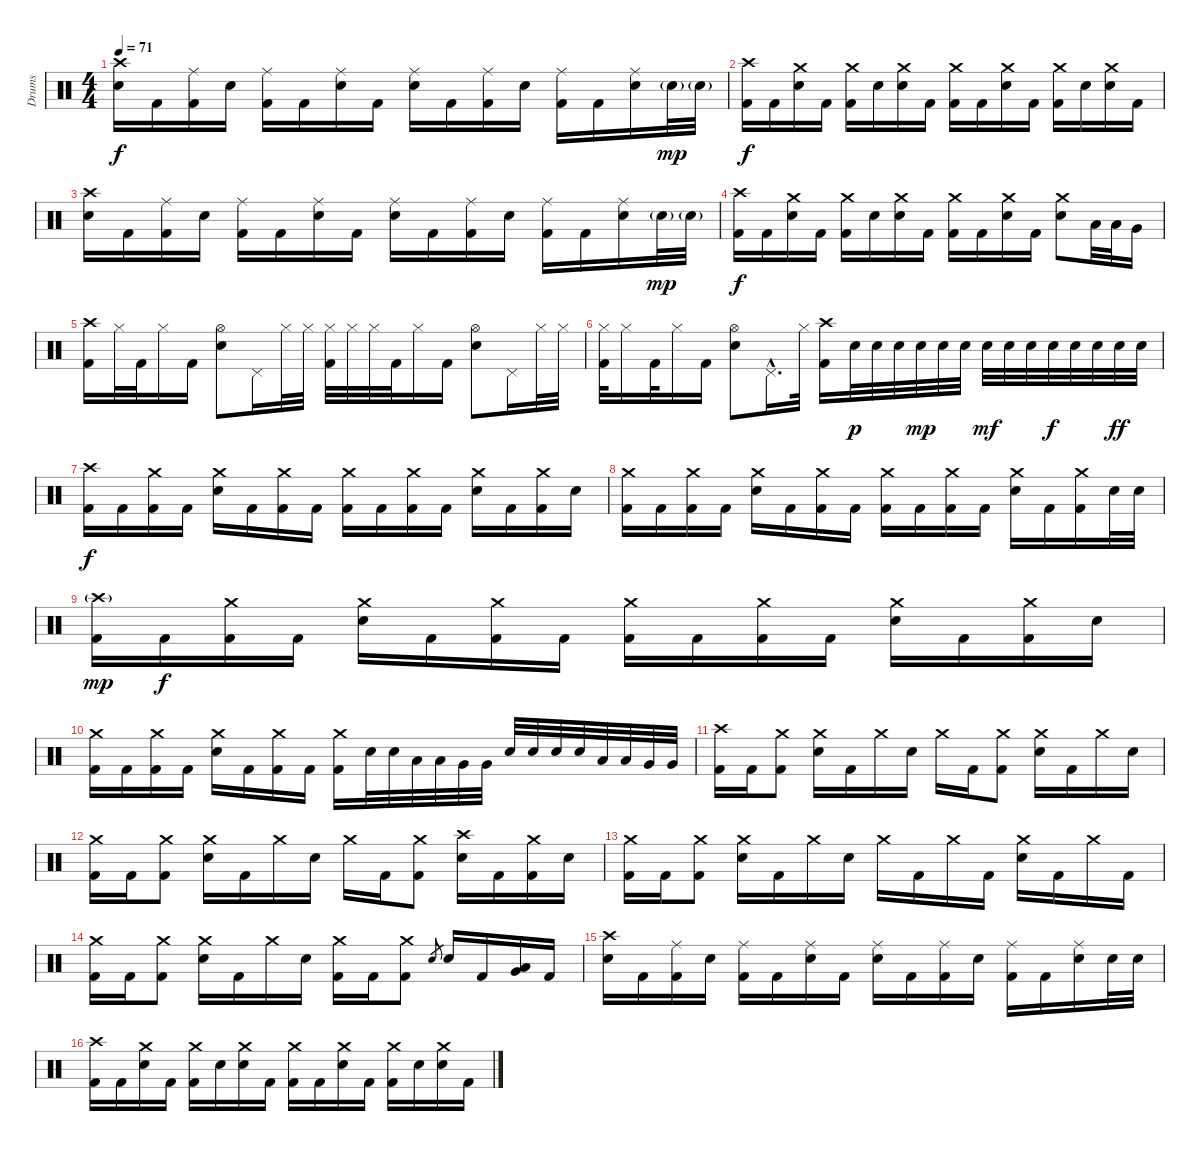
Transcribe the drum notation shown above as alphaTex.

\track ("Drums" "Drums") {instrument percussion}
\staff {score}
\articulation defaults
\ts (4 4)
\tempo 71
\clef neutral
\ks c
("Crash high (hit)" "Snare (hit) 2").16{dy f} "Kick (hit) 2".16 ("Ride (middle)" "Kick (hit) 2").16 "Snare (hit) 2".16 ("Ride (middle)" "Kick (hit) 2").16 "Kick (hit) 2".16 ("Ride (middle)" "Snare (hit) 2").16 "Kick (hit) 2".16 ("Ride (middle)" "Snare (hit) 2").16 "Kick (hit) 2".16 ("Ride (middle)" "Kick (hit) 2").16 "Snare (hit) 2".16 ("Ride (middle)" "Kick (hit) 2").16 "Kick (hit) 2".16 ("Ride (middle)" "Snare (hit) 2").16 "Snare (hit) 2"{g}.32{dy mp} "Snare (hit) 2"{g}.32 |
("Crash high (hit)" "Kick (hit) 2").16{dy f} "Kick (hit) 2".16 ("Crash medium (hit)" "Snare (hit) 2").16 "Kick (hit) 2".16 ("Crash medium (hit)" "Kick (hit) 2").16 "Snare (hit) 2".16 ("Crash medium (hit)" "Snare (hit) 2").16 "Kick (hit) 2".16 ("Crash medium (hit)" "Kick (hit) 2").16 "Kick (hit) 2".16 ("Crash medium (hit)" "Snare (hit) 2").16 "Kick (hit) 2".16 ("Crash medium (hit)" "Kick (hit) 2").16 "Snare (hit) 2".16 ("Crash medium (hit)" "Snare (hit) 2").16 "Kick (hit) 2".16 |
("Crash high (hit)" "Snare (hit) 2").16 "Kick (hit) 2".16 ("Ride (middle)" "Kick (hit) 2").16 "Snare (hit) 2".16 ("Ride (middle)" "Kick (hit) 2").16 "Kick (hit) 2".16 ("Ride (middle)" "Snare (hit) 2").16 "Kick (hit) 2".16 ("Ride (middle)" "Snare (hit) 2").16 "Kick (hit) 2".16 ("Ride (middle)" "Kick (hit) 2").16 "Snare (hit) 2".16 ("Ride (middle)" "Kick (hit) 2").16 "Kick (hit) 2".16 ("Ride (middle)" "Snare (hit) 2").16 "Snare (hit) 2"{g}.32{dy mp} "Snare (hit) 2"{g}.32 |
("Crash high (hit)" "Kick (hit) 2").16{dy f} "Kick (hit) 2".16 ("Crash medium (hit)" "Snare (hit) 2").16 "Kick (hit) 2".16 ("Crash medium (hit)" "Kick (hit) 2").16 "Snare (hit) 2".16 ("Crash medium (hit)" "Snare (hit) 2").16 "Kick (hit) 2".16 ("Crash medium (hit)" "Kick (hit) 2").16 "Kick (hit) 2".16 ("Crash medium (hit)" "Snare (hit) 2").16 "Kick (hit) 2".16 ("Crash medium (hit)" "Snare (hit) 2").8 "Low Tom (hit)".32 "Low Tom (hit)".32 "Very Low Tom (hit)".16 |
("Crash high (hit)" "Kick (hit) 2").16 "Hi-Hat (closed)".32 "Kick (hit) 2".32 "Hi-Hat (closed)".16 "Kick (hit) 2".16 ("Hi-Hat (open)" "Snare (hit) 2").8 "Pedal Hi-Hat (hit)".16 "Hi-Hat (closed)".32 "Hi-Hat (closed)".32 ("Hi-Hat (closed)" "Kick (hit) 2").32 "Hi-Hat (closed)".32 "Hi-Hat (closed)".32 "Kick (hit) 2".32 "Hi-Hat (closed)".16 "Kick (hit) 2".16 ("Hi-Hat (open)" "Snare (hit) 2").8 "Pedal Hi-Hat (hit)".16 "Hi-Hat (closed)".32 "Hi-Hat (closed)".32 |
("Hi-Hat (closed)" "Kick (hit) 2").32 "Hi-Hat (closed)".16 "Kick (hit) 2".32 "Hi-Hat (closed)".16 "Kick (hit) 2".16 ("Hi-Hat (open)" "Snare (hit) 2").8 "Pedal Hi-Hat (hit)"{hac}.16{d} "Hi-Hat (closed)".32 ("Crash high (hit)" "Kick (hit) 2").16 "Snare (hit) 2".32{dy p} "Snare (hit) 2".32 "Snare (hit) 2".32 "Snare (hit) 2".32{dy mp} "Snare (hit) 2".32 "Snare (hit) 2".32 "Snare (hit) 2".32{dy mf} "Snare (hit) 2".32 "Snare (hit) 2".32 "Snare (hit) 2".32{dy f} "Snare (hit) 2".32 "Snare (hit) 2".32 "Snare (hit) 2".32{dy ff} "Snare (hit) 2".32 |
("Crash high (hit)" "Kick (hit) 2").16{dy f} "Kick (hit) 2".16 ("Crash medium (hit)" "Kick (hit) 2").16 "Kick (hit) 2".16 ("Crash medium (hit)" "Snare (hit) 2").16 "Kick (hit) 2".16 ("Crash medium (hit)" "Kick (hit) 2").16 "Kick (hit) 2".16 ("Crash medium (hit)" "Kick (hit) 2").16 "Kick (hit) 2".16 ("Crash medium (hit)" "Kick (hit) 2").16 "Kick (hit) 2".16 ("Crash medium (hit)" "Snare (hit) 2").16 "Kick (hit) 2".16 ("Crash medium (hit)" "Kick (hit) 2").16 "Snare (hit) 2".16 |
("Crash medium (hit)" "Kick (hit) 2").16 "Kick (hit) 2".16 ("Crash medium (hit)" "Kick (hit) 2").16 "Kick (hit) 2".16 ("Crash medium (hit)" "Snare (hit) 2").16 "Kick (hit) 2".16 ("Crash medium (hit)" "Kick (hit) 2").16 "Kick (hit) 2".16 ("Crash medium (hit)" "Kick (hit) 2").16 "Kick (hit) 2".16 ("Crash medium (hit)" "Kick (hit) 2").16 "Kick (hit) 2".16 ("Crash medium (hit)" "Snare (hit) 2").16 "Kick (hit) 2".16 ("Crash medium (hit)" "Kick (hit) 2").16 "Snare (hit) 2".32 "Snare (hit) 2".32 |
("Crash high (hit)"{g} "Kick (hit) 2").16{dy mp} "Kick (hit) 2".16{dy f} ("Crash medium (hit)" "Kick (hit) 2").16 "Kick (hit) 2".16 ("Crash medium (hit)" "Snare (hit) 2").16 "Kick (hit) 2".16 ("Crash medium (hit)" "Kick (hit) 2").16 "Kick (hit) 2".16 ("Crash medium (hit)" "Kick (hit) 2").16 "Kick (hit) 2".16 ("Crash medium (hit)" "Kick (hit) 2").16 "Kick (hit) 2".16 ("Crash medium (hit)" "Snare (hit) 2").16 "Kick (hit) 2".16 ("Crash medium (hit)" "Kick (hit) 2").16 "Snare (hit) 2".16 |
("Crash medium (hit)" "Kick (hit) 2").16 "Kick (hit) 2".16 ("Crash medium (hit)" "Kick (hit) 2").16 "Kick (hit) 2".16 ("Crash medium (hit)" "Snare (hit) 2").16 "Kick (hit) 2".16 ("Crash medium (hit)" "Kick (hit) 2").16 "Kick (hit) 2".16 ("Crash medium (hit)" "Kick (hit) 2").16 "Snare (hit) 2".32 "Snare (hit) 2".32 "Low Tom (hit)".32 "Low Tom (hit)".32 "Very Low Tom (hit)".32 "Very Low Tom (hit)".32 "Snare (hit) 2".32 "Snare (hit) 2".32 "Snare (hit) 2".32 "Snare (hit) 2".32 "Low Tom (hit)".32 "Low Tom (hit)".32 "Very Low Tom (hit)".32 "Very Low Tom (hit)".32 |
("Crash high (hit)" "Kick (hit) 2").16 "Kick (hit) 2".16 ("Crash medium (hit)" "Kick (hit) 2").8 ("Crash medium (hit)" "Snare (hit) 2").16 "Kick (hit) 2".16 "Crash medium (hit)".16 "Snare (hit) 2".16 "Crash medium (hit)".16 "Kick (hit) 2".16 ("Crash medium (hit)" "Kick (hit) 2").8 ("Crash medium (hit)" "Snare (hit) 2").16 "Kick (hit) 2".16 "Crash medium (hit)".16 "Snare (hit) 2".16 |
("Crash medium (hit)" "Kick (hit) 2").16 "Kick (hit) 2".16 ("Crash medium (hit)" "Kick (hit) 2").8 ("Crash medium (hit)" "Snare (hit) 2").16 "Kick (hit) 2".16 "Crash medium (hit)".16 "Snare (hit) 2".16 "Crash medium (hit)".16 "Kick (hit) 2".16 ("Crash medium (hit)" "Kick (hit) 2").8 ("Crash high (hit)" "Snare (hit) 2").16 "Kick (hit) 2".16 ("Crash medium (hit)" "Kick (hit) 2").16 "Snare (hit) 2".16 |
("Crash medium (hit)" "Kick (hit) 2").16 "Kick (hit) 2".16 ("Crash medium (hit)" "Kick (hit) 2").8 ("Crash medium (hit)" "Snare (hit) 2").16 "Kick (hit) 2".16 "Crash medium (hit)".16 "Snare (hit) 2".16 "Crash medium (hit)".16 "Kick (hit) 2".16 "Crash medium (hit)".16 "Kick (hit) 2".16 ("Crash medium (hit)" "Snare (hit) 2").16 "Kick (hit) 2".16 "Crash medium (hit)".16 "Kick (hit) 2".16 |
("Crash medium (hit)" "Kick (hit) 2").16 "Kick (hit) 2".16 ("Crash medium (hit)" "Kick (hit) 2").8 ("Crash medium (hit)" "Snare (hit) 2").16 "Kick (hit) 2".16 "Crash medium (hit)".16 "Snare (hit) 2".16 ("Crash medium (hit)" "Kick (hit) 2").16 "Kick (hit) 2".16 ("Crash medium (hit)" "Kick (hit) 2").8 "Snare (hit) 2".8{gr} "Snare (hit) 2".16 "Kick (hit) 2".16 ("Low Tom (hit)" "Very Low Tom (hit)").16 "Kick (hit) 2".16 |
("Crash high (hit)" "Snare (hit) 2").16 "Kick (hit) 2".16 ("Ride (middle)" "Kick (hit) 2").16 "Snare (hit) 2".16 ("Ride (middle)" "Kick (hit) 2").16 "Kick (hit) 2".16 ("Ride (middle)" "Snare (hit) 2").16 "Kick (hit) 2".16 ("Ride (middle)" "Snare (hit) 2").16 "Kick (hit) 2".16 ("Ride (middle)" "Kick (hit) 2").16 "Snare (hit) 2".16 ("Ride (middle)" "Kick (hit) 2").16 "Kick (hit) 2".16 ("Ride (middle)" "Snare (hit) 2").16 "Snare (hit) 2".32 "Snare (hit) 2".32 |
("Crash high (hit)" "Kick (hit) 2").16 "Kick (hit) 2".16 ("Crash medium (hit)" "Snare (hit) 2").16 "Kick (hit) 2".16 ("Crash medium (hit)" "Kick (hit) 2").16 "Snare (hit) 2".16 ("Crash medium (hit)" "Snare (hit) 2").16 "Kick (hit) 2".16 ("Crash medium (hit)" "Kick (hit) 2").16 "Kick (hit) 2".16 ("Crash medium (hit)" "Snare (hit) 2").16 "Kick (hit) 2".16 ("Crash medium (hit)" "Kick (hit) 2").16 "Snare (hit) 2".16 ("Crash medium (hit)" "Snare (hit) 2").16 "Kick (hit) 2".16
